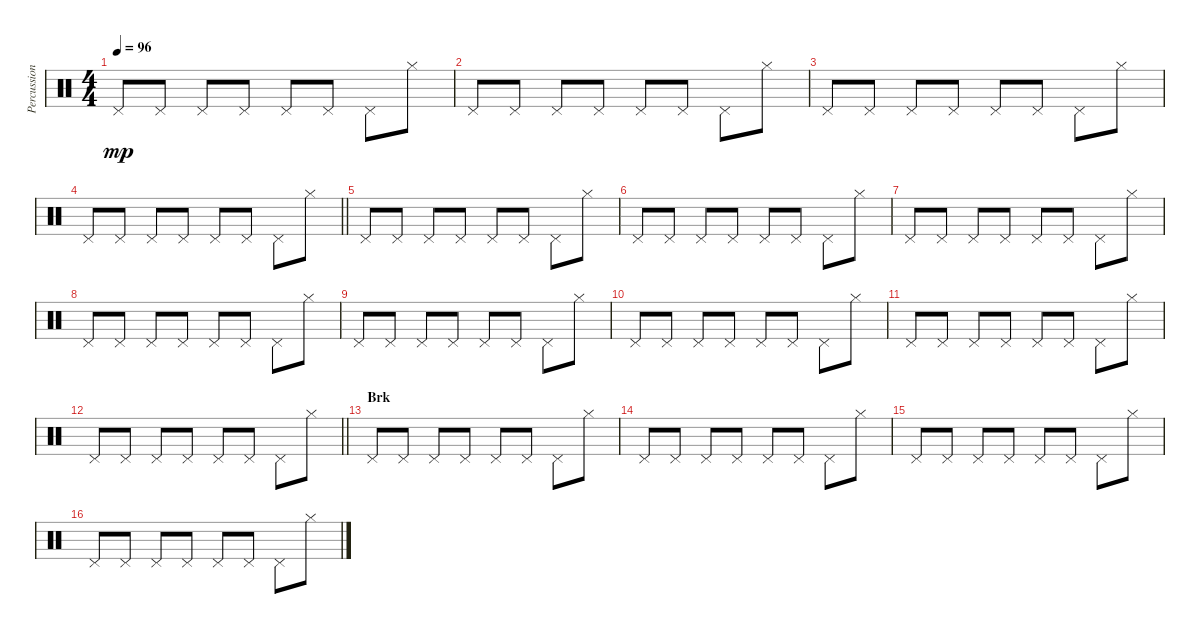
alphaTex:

\track ("Percussion" "Percussion") {instrument percussion}
\staff {score}
\articulation defaults
\ts (4 4)
\tempo 96
\clef neutral
\ks c "Pedal Hi-Hat (hit)".8{dy mp} "Pedal Hi-Hat (hit)".8 "Pedal Hi-Hat (hit)".8 "Pedal Hi-Hat (hit)".8 "Pedal Hi-Hat (hit)".8 "Pedal Hi-Hat (hit)".8 "Pedal Hi-Hat (hit)".8 "Hi-Hat (closed)".8
|
"Pedal Hi-Hat (hit)".8 "Pedal Hi-Hat (hit)".8 "Pedal Hi-Hat (hit)".8 "Pedal Hi-Hat (hit)".8 "Pedal Hi-Hat (hit)".8 "Pedal Hi-Hat (hit)".8 "Pedal Hi-Hat (hit)".8 "Hi-Hat (closed)".8 |
"Pedal Hi-Hat (hit)".8 "Pedal Hi-Hat (hit)".8 "Pedal Hi-Hat (hit)".8 "Pedal Hi-Hat (hit)".8 "Pedal Hi-Hat (hit)".8 "Pedal Hi-Hat (hit)".8 "Pedal Hi-Hat (hit)".8 "Hi-Hat (closed)".8 |
\barLineRight lightlight "Pedal Hi-Hat (hit)".8 "Pedal Hi-Hat (hit)".8 "Pedal Hi-Hat (hit)".8 "Pedal Hi-Hat (hit)".8 "Pedal Hi-Hat (hit)".8 "Pedal Hi-Hat (hit)".8 "Pedal Hi-Hat (hit)".8 "Hi-Hat (closed)".8
|
"Pedal Hi-Hat (hit)".8 "Pedal Hi-Hat (hit)".8 "Pedal Hi-Hat (hit)".8 "Pedal Hi-Hat (hit)".8 "Pedal Hi-Hat (hit)".8 "Pedal Hi-Hat (hit)".8 "Pedal Hi-Hat (hit)".8 "Hi-Hat (closed)".8 |
"Pedal Hi-Hat (hit)".8 "Pedal Hi-Hat (hit)".8 "Pedal Hi-Hat (hit)".8 "Pedal Hi-Hat (hit)".8 "Pedal Hi-Hat (hit)".8 "Pedal Hi-Hat (hit)".8 "Pedal Hi-Hat (hit)".8 "Hi-Hat (closed)".8 |
"Pedal Hi-Hat (hit)".8 "Pedal Hi-Hat (hit)".8 "Pedal Hi-Hat (hit)".8 "Pedal Hi-Hat (hit)".8 "Pedal Hi-Hat (hit)".8 "Pedal Hi-Hat (hit)".8 "Pedal Hi-Hat (hit)".8 "Hi-Hat (closed)".8 |
"Pedal Hi-Hat (hit)".8 "Pedal Hi-Hat (hit)".8 "Pedal Hi-Hat (hit)".8 "Pedal Hi-Hat (hit)".8 "Pedal Hi-Hat (hit)".8 "Pedal Hi-Hat (hit)".8 "Pedal Hi-Hat (hit)".8 "Hi-Hat (closed)".8 |
"Pedal Hi-Hat (hit)".8 "Pedal Hi-Hat (hit)".8 "Pedal Hi-Hat (hit)".8 "Pedal Hi-Hat (hit)".8 "Pedal Hi-Hat (hit)".8 "Pedal Hi-Hat (hit)".8 "Pedal Hi-Hat (hit)".8 "Hi-Hat (closed)".8 |
"Pedal Hi-Hat (hit)".8 "Pedal Hi-Hat (hit)".8 "Pedal Hi-Hat (hit)".8 "Pedal Hi-Hat (hit)".8 "Pedal Hi-Hat (hit)".8 "Pedal Hi-Hat (hit)".8 "Pedal Hi-Hat (hit)".8 "Hi-Hat (closed)".8 |
"Pedal Hi-Hat (hit)".8 "Pedal Hi-Hat (hit)".8 "Pedal Hi-Hat (hit)".8 "Pedal Hi-Hat (hit)".8 "Pedal Hi-Hat (hit)".8 "Pedal Hi-Hat (hit)".8 "Pedal Hi-Hat (hit)".8 "Hi-Hat (closed)".8 |
\barLineRight lightlight "Pedal Hi-Hat (hit)".8 "Pedal Hi-Hat (hit)".8 "Pedal Hi-Hat (hit)".8 "Pedal Hi-Hat (hit)".8 "Pedal Hi-Hat (hit)".8 "Pedal Hi-Hat (hit)".8 "Pedal Hi-Hat (hit)".8 "Hi-Hat (closed)".8
|
\section ("" "Brk")
"Pedal Hi-Hat (hit)".8 "Pedal Hi-Hat (hit)".8 "Pedal Hi-Hat (hit)".8 "Pedal Hi-Hat (hit)".8 "Pedal Hi-Hat (hit)".8 "Pedal Hi-Hat (hit)".8 "Pedal Hi-Hat (hit)".8 "Hi-Hat (closed)".8 |
"Pedal Hi-Hat (hit)".8 "Pedal Hi-Hat (hit)".8 "Pedal Hi-Hat (hit)".8 "Pedal Hi-Hat (hit)".8 "Pedal Hi-Hat (hit)".8 "Pedal Hi-Hat (hit)".8 "Pedal Hi-Hat (hit)".8 "Hi-Hat (closed)".8 |
"Pedal Hi-Hat (hit)".8 "Pedal Hi-Hat (hit)".8 "Pedal Hi-Hat (hit)".8 "Pedal Hi-Hat (hit)".8 "Pedal Hi-Hat (hit)".8 "Pedal Hi-Hat (hit)".8 "Pedal Hi-Hat (hit)".8 "Hi-Hat (closed)".8 |
"Pedal Hi-Hat (hit)".8 "Pedal Hi-Hat (hit)".8 "Pedal Hi-Hat (hit)".8 "Pedal Hi-Hat (hit)".8 "Pedal Hi-Hat (hit)".8 "Pedal Hi-Hat (hit)".8 "Pedal Hi-Hat (hit)".8 "Hi-Hat (closed)".8
